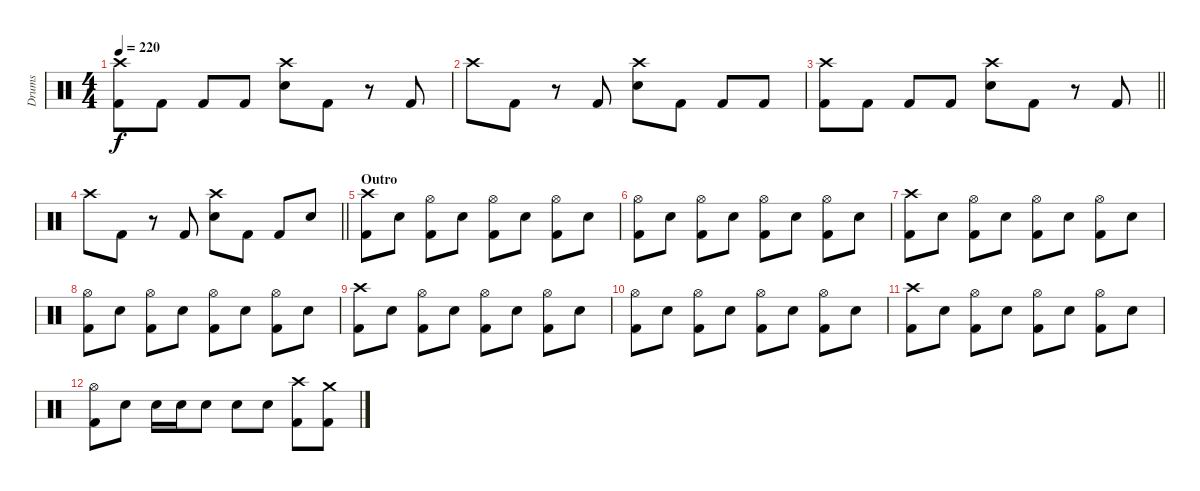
\track ("Drums" "Drums") {instrument percussion}
\staff {score}
\articulation defaults
\ts (4 4)
\tempo 220
\clef neutral
\ks c
("Kick (hit) 2" "Crash high (hit)").8{dy f} "Kick (hit) 2".8 "Kick (hit) 2".8 "Kick (hit) 2".8 ("Electric Snare (hit)" "Crash high (hit)").8 "Kick (hit) 2".8 r.8 "Kick (hit) 2".8 |
"Crash high (hit)".8 "Kick (hit) 2".8 r.8 "Kick (hit) 2".8 ("Electric Snare (hit)" "Crash high (hit)").8 "Kick (hit) 2".8 "Kick (hit) 2".8 "Kick (hit) 2".8 |
\barLineRight lightlight
("Kick (hit) 2" "Crash high (hit)").8 "Kick (hit) 2".8 "Kick (hit) 2".8 "Kick (hit) 2".8 ("Electric Snare (hit)" "Crash high (hit)").8 "Kick (hit) 2".8 r.8 "Kick (hit) 2".8 |
\barLineRight lightlight "Crash high (hit)".8 "Kick (hit) 2".8
r.8 "Kick (hit) 2".8 ("Electric Snare (hit)" "Crash high (hit)").8 "Kick (hit) 2".8 "Kick (hit) 2".8 "Electric Snare (hit)".8 |
\section ("" "Outro")
("Kick (hit) 2" "Crash high (hit)").8 "Electric Snare (hit)".8 ("Kick (hit) 2" "Hi-Hat (open)").8 "Electric Snare (hit)".8 ("Kick (hit) 2" "Hi-Hat (open)").8 "Electric Snare (hit)".8 ("Kick (hit) 2" "Hi-Hat (open)").8 "Electric Snare (hit)".8 |
("Kick (hit) 2" "Hi-Hat (open)").8 "Electric Snare (hit)".8 ("Kick (hit) 2" "Hi-Hat (open)").8 "Electric Snare (hit)".8 ("Kick (hit) 2" "Hi-Hat (open)").8 "Electric Snare (hit)".8 ("Kick (hit) 2" "Hi-Hat (open)").8 "Electric Snare (hit)".8 |
("Kick (hit) 2" "Crash high (hit)").8 "Electric Snare (hit)".8 ("Kick (hit) 2" "Hi-Hat (open)").8 "Electric Snare (hit)".8 ("Kick (hit) 2" "Hi-Hat (open)").8 "Electric Snare (hit)".8 ("Kick (hit) 2" "Hi-Hat (open)").8 "Electric Snare (hit)".8 |
("Kick (hit) 2" "Hi-Hat (open)").8 "Electric Snare (hit)".8 ("Kick (hit) 2" "Hi-Hat (open)").8 "Electric Snare (hit)".8 ("Kick (hit) 2" "Hi-Hat (open)").8 "Electric Snare (hit)".8 ("Kick (hit) 2" "Hi-Hat (open)").8 "Electric Snare (hit)".8 |
("Kick (hit) 2" "Crash high (hit)").8 "Electric Snare (hit)".8 ("Kick (hit) 2" "Hi-Hat (open)").8 "Electric Snare (hit)".8 ("Kick (hit) 2" "Hi-Hat (open)").8 "Electric Snare (hit)".8 ("Kick (hit) 2" "Hi-Hat (open)").8 "Electric Snare (hit)".8 |
("Kick (hit) 2" "Hi-Hat (open)").8 "Electric Snare (hit)".8 ("Kick (hit) 2" "Hi-Hat (open)").8 "Electric Snare (hit)".8 ("Kick (hit) 2" "Hi-Hat (open)").8 "Electric Snare (hit)".8 ("Kick (hit) 2" "Hi-Hat (open)").8 "Electric Snare (hit)".8 |
("Kick (hit) 2" "Crash high (hit)").8 "Electric Snare (hit)".8 ("Kick (hit) 2" "Hi-Hat (open)").8 "Electric Snare (hit)".8 ("Kick (hit) 2" "Hi-Hat (open)").8 "Electric Snare (hit)".8 ("Kick (hit) 2" "Hi-Hat (open)").8 "Electric Snare (hit)".8 |
("Kick (hit) 2" "Hi-Hat (open)").8 "Electric Snare (hit)".8 "Electric Snare (hit)".16 "Electric Snare (hit)".16 "Electric Snare (hit)".8 "Electric Snare (hit)".8 "Electric Snare (hit)".8 ("Kick (hit) 2" "Crash high (hit)").8 ("Kick (hit) 2" "Crash medium (hit)").8
